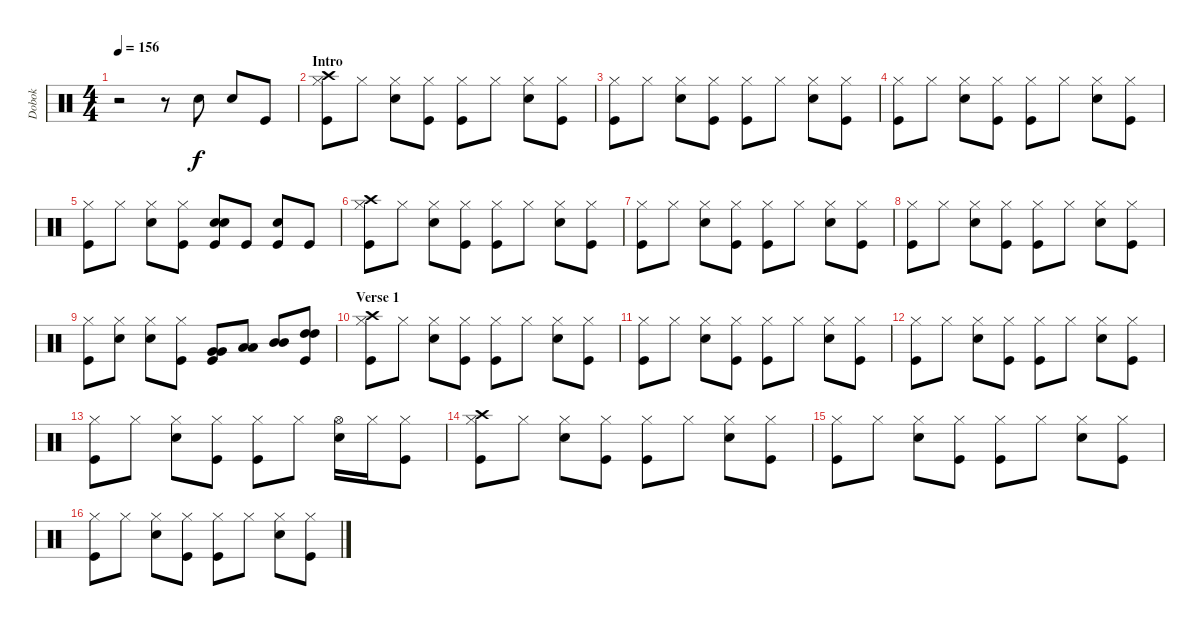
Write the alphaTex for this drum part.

\track ("Dobok" "Dobok") {instrument percussion}
\staff {score}
\articulation defaults
\ts (4 4)
\tempo 156
\clef neutral
\ks c
r.2{dy f} r.8 "Electric Snare (hit)".8 "Electric Snare (hit)".8 "Kick (hit)".8 |
\section ("" "Intro")
("Hi-Hat (closed)" "Crash high (hit)" "Kick (hit)").8 "Hi-Hat (closed)".8 ("Hi-Hat (closed)" "Electric Snare (hit)").8 ("Hi-Hat (closed)" "Kick (hit)").8 ("Hi-Hat (closed)" "Kick (hit)").8 "Hi-Hat (closed)".8 ("Hi-Hat (closed)" "Electric Snare (hit)").8 ("Hi-Hat (closed)" "Kick (hit)").8 |
("Hi-Hat (closed)" "Kick (hit)").8 "Hi-Hat (closed)".8 ("Hi-Hat (closed)" "Electric Snare (hit)").8 ("Hi-Hat (closed)" "Kick (hit)").8 ("Hi-Hat (closed)" "Kick (hit)").8 "Hi-Hat (closed)".8 ("Hi-Hat (closed)" "Electric Snare (hit)").8 ("Hi-Hat (closed)" "Kick (hit)").8 |
("Hi-Hat (closed)" "Kick (hit)").8 "Hi-Hat (closed)".8 ("Hi-Hat (closed)" "Electric Snare (hit)").8 ("Hi-Hat (closed)" "Kick (hit)").8 ("Hi-Hat (closed)" "Kick (hit)").8 "Hi-Hat (closed)".8 ("Hi-Hat (closed)" "Electric Snare (hit)").8 ("Hi-Hat (closed)" "Kick (hit)").8 |
("Hi-Hat (closed)" "Kick (hit)").8 "Hi-Hat (closed)".8 ("Hi-Hat (closed)" "Electric Snare (hit)").8 ("Hi-Hat (closed)" "Kick (hit)").8 ("Electric Snare (hit)" "Snare (hit) 2" "Kick (hit)").8 "Kick (hit)".8 ("Electric Snare (hit)" "Kick (hit)").8 "Kick (hit)".8 |
("Hi-Hat (closed)" "Crash high (hit)" "Kick (hit)").8 "Hi-Hat (closed)".8 ("Hi-Hat (closed)" "Electric Snare (hit)").8 ("Hi-Hat (closed)" "Kick (hit)").8 ("Hi-Hat (closed)" "Kick (hit)").8 "Hi-Hat (closed)".8 ("Hi-Hat (closed)" "Electric Snare (hit)").8 ("Hi-Hat (closed)" "Kick (hit)").8 |
("Hi-Hat (closed)" "Kick (hit)").8 "Hi-Hat (closed)".8 ("Hi-Hat (closed)" "Electric Snare (hit)").8 ("Hi-Hat (closed)" "Kick (hit)").8 ("Hi-Hat (closed)" "Kick (hit)").8 "Hi-Hat (closed)".8 ("Hi-Hat (closed)" "Electric Snare (hit)").8 ("Hi-Hat (closed)" "Kick (hit)").8 |
("Hi-Hat (closed)" "Kick (hit)").8 "Hi-Hat (closed)".8 ("Hi-Hat (closed)" "Electric Snare (hit)").8 ("Hi-Hat (closed)" "Kick (hit)").8 ("Hi-Hat (closed)" "Kick (hit)").8 "Hi-Hat (closed)".8 ("Hi-Hat (closed)" "Electric Snare (hit)").8 ("Hi-Hat (closed)" "Kick (hit)").8 |
("Hi-Hat (closed)" "Kick (hit)").8 ("Hi-Hat (closed)" "Electric Snare (hit)").8 ("Hi-Hat (closed)" "Electric Snare (hit)").8 ("Hi-Hat (closed)" "Kick (hit)").8 ("Very Low Tom (hit)" "Very Low Tom (hit)" "Kick (hit)").8 ("Low Tom (hit)" "Low Tom (hit)").8 ("Mid Tom (hit)" "Mid Tom (hit)").8 ("High Tom (hit)" "High Tom (hit)" "Kick (hit)").8 |
\section ("" "Verse 1")
("Hi-Hat (closed)" "Crash high (hit)" "Kick (hit)").8 "Hi-Hat (closed)".8 ("Hi-Hat (closed)" "Electric Snare (hit)").8 ("Hi-Hat (closed)" "Kick (hit)").8 ("Hi-Hat (closed)" "Kick (hit)").8 "Hi-Hat (closed)".8 ("Hi-Hat (closed)" "Electric Snare (hit)").8 ("Hi-Hat (closed)" "Kick (hit)").8 |
("Hi-Hat (closed)" "Kick (hit)").8 "Hi-Hat (closed)".8 ("Hi-Hat (closed)" "Electric Snare (hit)").8 ("Hi-Hat (closed)" "Kick (hit)").8 ("Hi-Hat (closed)" "Kick (hit)").8 "Hi-Hat (closed)".8 ("Hi-Hat (closed)" "Electric Snare (hit)").8 ("Hi-Hat (closed)" "Kick (hit)").8 |
("Hi-Hat (closed)" "Kick (hit)").8 "Hi-Hat (closed)".8 ("Hi-Hat (closed)" "Electric Snare (hit)").8 ("Hi-Hat (closed)" "Kick (hit)").8 ("Hi-Hat (closed)" "Kick (hit)").8 "Hi-Hat (closed)".8 ("Hi-Hat (closed)" "Electric Snare (hit)").8 ("Hi-Hat (closed)" "Kick (hit)").8 |
("Hi-Hat (closed)" "Kick (hit)").8 "Hi-Hat (closed)".8 ("Hi-Hat (closed)" "Electric Snare (hit)").8 ("Hi-Hat (closed)" "Kick (hit)").8 ("Hi-Hat (closed)" "Kick (hit)").8 "Hi-Hat (closed)".8 ("Hi-Hat (open)" "Electric Snare (hit)").16 "Hi-Hat (closed)".16 ("Hi-Hat (closed)" "Kick (hit)").8 |
("Hi-Hat (closed)" "Crash high (hit)" "Kick (hit)").8 "Hi-Hat (closed)".8 ("Hi-Hat (closed)" "Electric Snare (hit)").8 ("Hi-Hat (closed)" "Kick (hit)").8 ("Hi-Hat (closed)" "Kick (hit)").8 "Hi-Hat (closed)".8 ("Hi-Hat (closed)" "Electric Snare (hit)").8 ("Hi-Hat (closed)" "Kick (hit)").8 |
("Hi-Hat (closed)" "Kick (hit)").8 "Hi-Hat (closed)".8 ("Hi-Hat (closed)" "Electric Snare (hit)").8 ("Hi-Hat (closed)" "Kick (hit)").8 ("Hi-Hat (closed)" "Kick (hit)").8 "Hi-Hat (closed)".8 ("Hi-Hat (closed)" "Electric Snare (hit)").8 ("Hi-Hat (closed)" "Kick (hit)").8 |
("Hi-Hat (closed)" "Kick (hit)").8 "Hi-Hat (closed)".8 ("Hi-Hat (closed)" "Electric Snare (hit)").8 ("Hi-Hat (closed)" "Kick (hit)").8 ("Hi-Hat (closed)" "Kick (hit)").8 "Hi-Hat (closed)".8 ("Hi-Hat (closed)" "Electric Snare (hit)").8 ("Hi-Hat (closed)" "Kick (hit)").8
